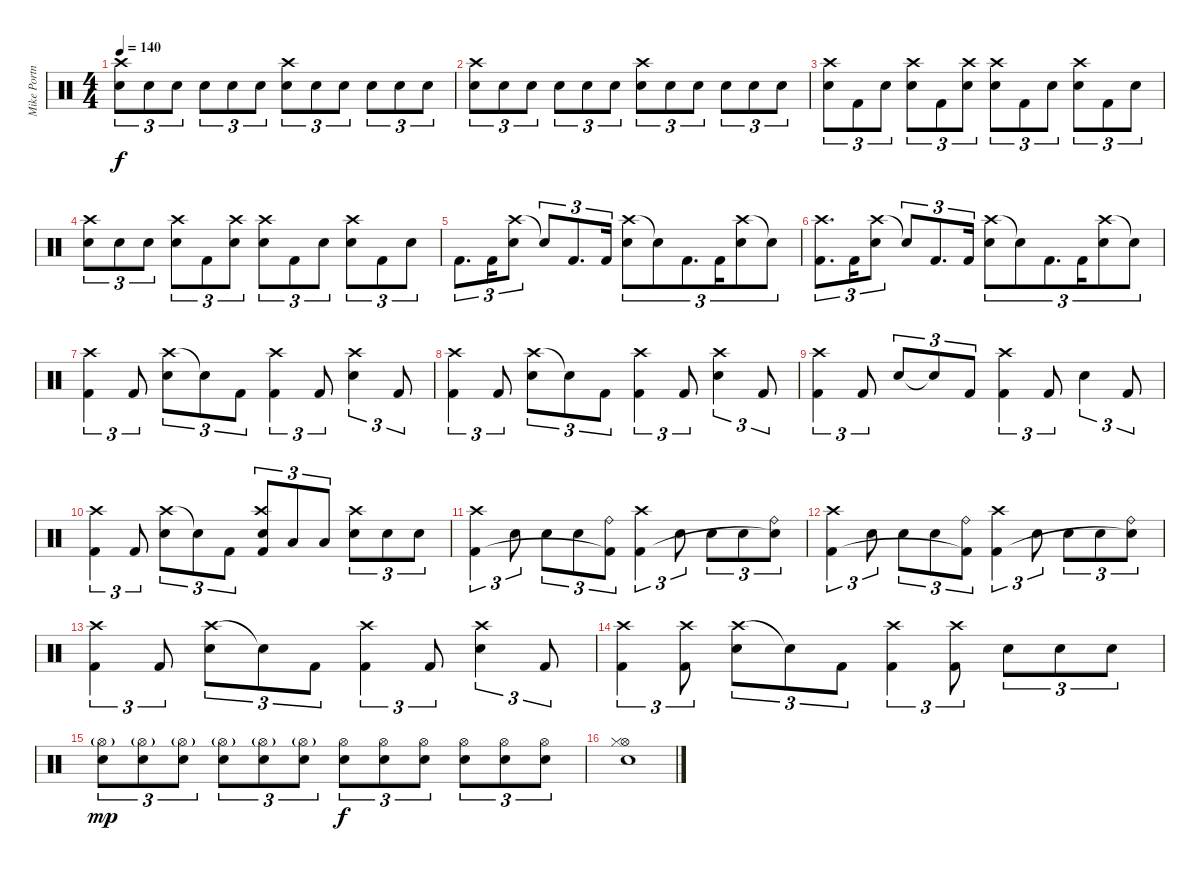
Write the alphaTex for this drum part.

\track ("Mike Portnoy Drums/Percussion" "Mike Portn") {instrument percussion}
\staff {score}
\articulation defaults
\ts (4 4)
\tempo 140
\clef neutral
\ks c
("Snare (hit) 2" "Crash high (hit)").8{tu (3 2) dy f} "Snare (hit) 2".8{tu (3 2)} "Snare (hit) 2".8{tu (3 2)} "Snare (hit) 2".8{tu (3 2)} "Snare (hit) 2".8{tu (3 2)} "Snare (hit) 2".8{tu (3 2)} ("Snare (hit) 2" "Crash high (hit)").8{tu (3 2)} "Snare (hit) 2".8{tu (3 2)} "Snare (hit) 2".8{tu (3 2)} "Snare (hit) 2".8{tu (3 2)} "Snare (hit) 2".8{tu (3 2)} "Snare (hit) 2".8{tu (3 2)} |
("Snare (hit) 2" "Crash high (hit)").8{tu (3 2)} "Snare (hit) 2".8{tu (3 2)} "Snare (hit) 2".8{tu (3 2)} "Snare (hit) 2".8{tu (3 2)} "Snare (hit) 2".8{tu (3 2)} "Snare (hit) 2".8{tu (3 2)} ("Snare (hit) 2" "Crash high (hit)").8{tu (3 2)} "Snare (hit) 2".8{tu (3 2)} "Snare (hit) 2".8{tu (3 2)} "Snare (hit) 2".8{tu (3 2)} "Snare (hit) 2".8{tu (3 2)} "Snare (hit) 2".8{tu (3 2)} |
("Snare (hit) 2" "Crash high (hit)").8{tu (3 2)} "Kick (hit) 2".8{tu (3 2)} "Snare (hit) 2".8{tu (3 2)} ("Crash high (hit)" "Snare (hit) 2").8{tu (3 2)} "Kick (hit) 2".8{tu (3 2)} ("Crash high (hit)" "Snare (hit) 2").8{tu (3 2)} ("Crash high (hit)" "Snare (hit) 2").8{tu (3 2)} "Kick (hit) 2".8{tu (3 2)} "Snare (hit) 2".8{tu (3 2)} ("Crash high (hit)" "Snare (hit) 2").8{tu (3 2)} "Kick (hit) 2".8{tu (3 2)} "Snare (hit) 2".8{tu (3 2)} |
("Snare (hit) 2" "Crash high (hit)").8{tu (3 2)} "Snare (hit) 2".8{tu (3 2)} "Snare (hit) 2".8{tu (3 2)} ("Crash high (hit)" "Snare (hit) 2").8{tu (3 2)} "Kick (hit) 2".8{tu (3 2)} ("Crash high (hit)" "Snare (hit) 2").8{tu (3 2)} ("Crash high (hit)" "Snare (hit) 2").8{tu (3 2)} "Kick (hit) 2".8{tu (3 2)} "Snare (hit) 2".8{tu (3 2)} ("Crash high (hit)" "Snare (hit) 2").8{tu (3 2)} "Kick (hit) 2".8{tu (3 2)} "Snare (hit) 2".8{tu (3 2)} |
"Kick (hit) 2".8{d tu (3 2)} "Kick (hit) 2".16{tu (3 2)} ("Crash high (hit)" "Snare (hit) 2").8{tu (3 2)} "Snare (hit)"{t}.8{tu (3 2)} "Kick (hit) 2".8{d tu (3 2)} "Kick (hit) 2".16{tu (3 2)} ("Crash high (hit)" "Snare (hit) 2").8{tu (3 2)} "Snare (hit)"{t}.8{tu (3 2)} "Kick (hit) 2".8{d tu (3 2)} "Kick (hit) 2".16{tu (3 2)} ("Crash high (hit)" "Snare (hit) 2").8{tu (3 2)} "Snare (hit)"{t}.8{tu (3 2)} |
("Crash high (hit)" "Kick (hit) 2").8{d tu (3 2)} "Kick (hit) 2".16{tu (3 2)} ("Crash high (hit)" "Snare (hit) 2").8{tu (3 2)} "Snare (hit)"{t}.8{tu (3 2)} "Kick (hit) 2".8{d tu (3 2)} "Kick (hit) 2".16{tu (3 2)} ("Crash high (hit)" "Snare (hit) 2").8{tu (3 2)} "Snare (hit)"{t}.8{tu (3 2)} "Kick (hit) 2".8{d tu (3 2)} "Kick (hit) 2".16{tu (3 2)} ("Crash high (hit)" "Snare (hit) 2").8{tu (3 2)} "Snare (hit)"{t}.8{tu (3 2)} |
("Crash high (hit)" "Kick (hit) 2").4{tu (3 2)} "Kick (hit) 2".8{tu (3 2)} ("Crash high (hit)" "Snare (hit) 2").8{tu (3 2)} "Snare (hit)"{t}.8{tu (3 2)} "Kick (hit) 2".8{tu (3 2)} ("Crash high (hit)" "Kick (hit) 2").4{tu (3 2)} "Kick (hit) 2".8{tu (3 2)} ("Crash high (hit)" "Snare (hit) 2").4{tu (3 2)} "Kick (hit) 2".8{tu (3 2)} |
("Crash high (hit)" "Kick (hit) 2").4{tu (3 2)} "Kick (hit) 2".8{tu (3 2)} ("Crash high (hit)" "Snare (hit) 2").8{tu (3 2)} "Snare (hit)"{t}.8{tu (3 2)} "Kick (hit) 2".8{tu (3 2)} ("Crash high (hit)" "Kick (hit) 2").4{tu (3 2)} "Kick (hit) 2".8{tu (3 2)} ("Crash high (hit)" "Snare (hit) 2").4{tu (3 2)} "Kick (hit) 2".8{tu (3 2)} |
("Crash high (hit)" "Kick (hit) 2").4{tu (3 2)} "Kick (hit) 2".8{tu (3 2)} "Snare (hit) 2".8{tu (3 2)} "Snare (hit)"{t}.8{tu (3 2)} "Kick (hit) 2".8{tu (3 2)} ("Crash high (hit)" "Kick (hit) 2").4{tu (3 2)} "Kick (hit) 2".8{tu (3 2)} "Snare (hit) 2".4{tu (3 2)} "Kick (hit) 2".8{tu (3 2)} |
("Crash high (hit)" "Kick (hit) 2").4{tu (3 2)} "Kick (hit) 2".8{tu (3 2)} ("Crash high (hit)" "Snare (hit) 2").8{tu (3 2)} "Snare (hit)"{t}.8{tu (3 2)} "Kick (hit) 2".8{tu (3 2)} ("Snare (hit) 2" "Crash high (hit)" "Kick (hit) 2").8{tu (3 2)} "Low Tom (hit)".8{tu (3 2)} "Low Floor Tom (hit)".8{tu (3 2)} ("Crash high (hit)" "Snare (hit) 2").8{tu (3 2)} "Snare (hit) 2".8{tu (3 2)} "Snare (hit) 2".8{tu (3 2)} |
("Crash high (hit)" "Kick (hit) 2").4{tu (3 2)} "Snare (hit) 2".8{tu (3 2)} "Snare (hit) 2".8{tu (3 2)} "Snare (hit) 2".8{tu (3 2)} ("Ride (bell)" "Kick (hit) 2"{t}).8{tu (3 2)} ("Crash high (hit)" "Kick (hit) 2").4{tu (3 2)} "Snare (hit) 2".8{tu (3 2)} "Snare (hit) 2".8{tu (3 2)} "Snare (hit) 2".8{tu (3 2)} ("Ride (bell)" "Snare (hit)"{t}).8{tu (3 2)} |
("Crash high (hit)" "Kick (hit) 2").4{tu (3 2)} "Snare (hit) 2".8{tu (3 2)} "Snare (hit) 2".8{tu (3 2)} "Snare (hit) 2".8{tu (3 2)} ("Ride (bell)" "Kick (hit) 2"{t}).8{tu (3 2)} ("Crash high (hit)" "Kick (hit) 2").4{tu (3 2)} "Snare (hit) 2".8{tu (3 2)} "Snare (hit) 2".8{tu (3 2)} "Snare (hit) 2".8{tu (3 2)} ("Ride (bell)" "Snare (hit)"{t}).8{tu (3 2)} |
("Crash high (hit)" "Kick (hit) 2").4{tu (3 2)} "Kick (hit) 2".8{tu (3 2)} ("Crash high (hit)" "Snare (hit) 2").8{tu (3 2)} "Snare (hit)"{t}.8{tu (3 2)} "Kick (hit) 2".8{tu (3 2)} ("Crash high (hit)" "Kick (hit) 2").4{tu (3 2)} "Kick (hit) 2".8{tu (3 2)} ("Crash high (hit)" "Snare (hit) 2").4{tu (3 2)} "Kick (hit) 2".8{tu (3 2)} |
("Crash high (hit)" "Kick (hit) 2").4{tu (3 2)} ("Crash high (hit)" "Kick (hit) 2").8{tu (3 2)} ("Crash high (hit)" "Snare (hit) 2").8{tu (3 2)} "Snare (hit)"{t}.8{tu (3 2)} "Kick (hit) 2".8{tu (3 2)} ("Crash high (hit)" "Kick (hit) 2").4{tu (3 2)} ("Crash high (hit)" "Kick (hit) 2").8{tu (3 2)} "Snare (hit) 2".8{tu (3 2)} "Snare (hit) 2".8{tu (3 2)} "Snare (hit) 2".8{tu (3 2)} |
("Hi-Hat (open)"{g} "Snare (hit) 2").8{tu (3 2) dy mp} ("Hi-Hat (open)"{g} "Snare (hit) 2").8{tu (3 2)} ("Hi-Hat (open)"{g} "Snare (hit) 2").8{tu (3 2)} ("Hi-Hat (open)"{g} "Snare (hit) 2").8{tu (3 2)} ("Hi-Hat (open)"{g} "Snare (hit) 2").8{tu (3 2)} ("Hi-Hat (open)"{g} "Snare (hit) 2").8{tu (3 2)} ("Hi-Hat (open)" "Snare (hit) 2").8{tu (3 2) dy f} ("Hi-Hat (open)" "Snare (hit) 2").8{tu (3 2)} ("Hi-Hat (open)" "Snare (hit) 2").8{tu (3 2)} ("Hi-Hat (open)" "Snare (hit) 2").8{tu (3 2)} ("Hi-Hat (open)" "Snare (hit) 2").8{tu (3 2)} ("Hi-Hat (open)" "Snare (hit) 2").8{tu (3 2)} |
("Hi-Hat (open)" "Hi-Hat (closed)" "Snare (hit) 2").1
